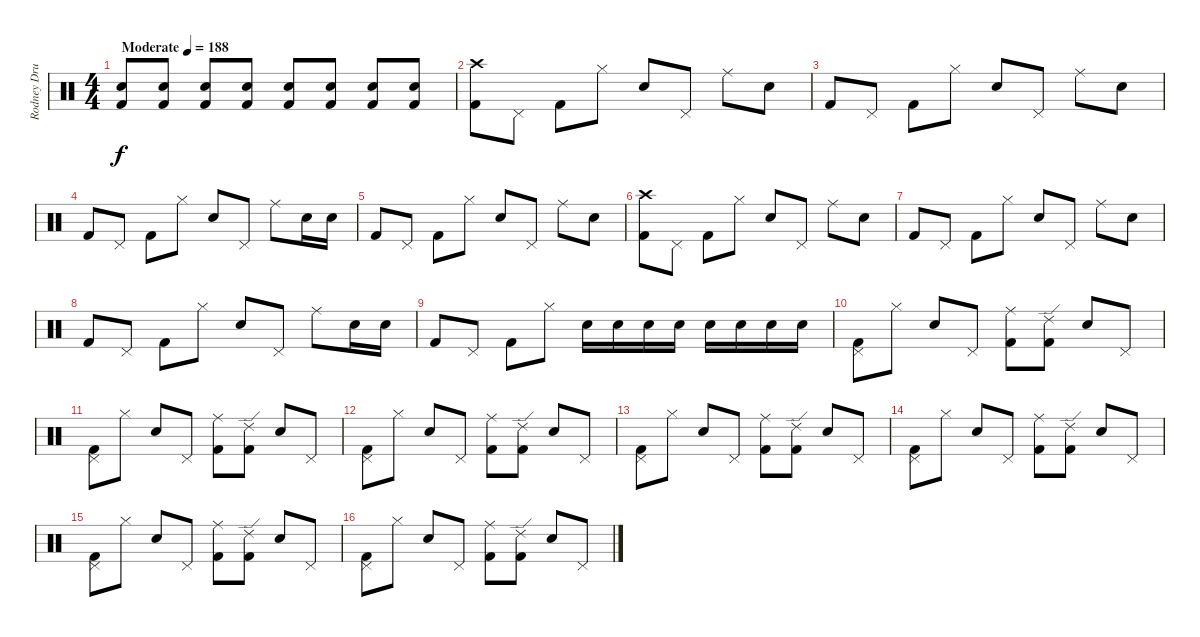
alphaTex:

\track ("Rodney Drums" "Rodney Dru") {instrument percussion}
\staff {score}
\articulation defaults
\ts (4 4)
\tempo (188 "Moderate")
\clef neutral
\ks c
("Electric Snare (hit)" "Kick (hit) 2").8{dy f} ("Electric Snare (hit)" "Kick (hit) 2").8 ("Electric Snare (hit)" "Kick (hit) 2").8 ("Electric Snare (hit)" "Kick (hit) 2").8 ("Electric Snare (hit)" "Kick (hit) 2").8 ("Electric Snare (hit)" "Kick (hit) 2").8 ("Electric Snare (hit)" "Kick (hit) 2").8 ("Electric Snare (hit)" "Kick (hit) 2").8 |
("Crash high (hit)" "Kick (hit) 2").8 "Pedal Hi-Hat (hit)".8 "Kick (hit) 2".8 "Hi-Hat (closed)".8 "Electric Snare (hit)".8 "Pedal Hi-Hat (hit)".8 "Ride (middle)".8 "Electric Snare (hit)".8 |
"Kick (hit) 2".8 "Pedal Hi-Hat (hit)".8 "Kick (hit) 2".8 "Hi-Hat (closed)".8 "Electric Snare (hit)".8 "Pedal Hi-Hat (hit)".8 "Ride (middle)".8 "Electric Snare (hit)".8 |
"Kick (hit) 2".8 "Pedal Hi-Hat (hit)".8 "Kick (hit) 2".8 "Hi-Hat (closed)".8 "Electric Snare (hit)".8 "Pedal Hi-Hat (hit)".8 "Ride (middle)".8 "Electric Snare (hit)".16 "Electric Snare (hit)".16 |
"Kick (hit) 2".8 "Pedal Hi-Hat (hit)".8 "Kick (hit) 2".8 "Hi-Hat (closed)".8 "Electric Snare (hit)".8 "Pedal Hi-Hat (hit)".8 "Ride (middle)".8 "Electric Snare (hit)".8 |
("Crash high (hit)" "Kick (hit) 2").8 "Pedal Hi-Hat (hit)".8 "Kick (hit) 2".8 "Hi-Hat (closed)".8 "Electric Snare (hit)".8 "Pedal Hi-Hat (hit)".8 "Ride (middle)".8 "Electric Snare (hit)".8 |
"Kick (hit) 2".8 "Pedal Hi-Hat (hit)".8 "Kick (hit) 2".8 "Hi-Hat (closed)".8 "Electric Snare (hit)".8 "Pedal Hi-Hat (hit)".8 "Ride (middle)".8 "Electric Snare (hit)".8 |
"Kick (hit) 2".8 "Pedal Hi-Hat (hit)".8 "Kick (hit) 2".8 "Hi-Hat (closed)".8 "Electric Snare (hit)".8 "Pedal Hi-Hat (hit)".8 "Ride (middle)".8 "Electric Snare (hit)".16 "Electric Snare (hit)".16 |
"Kick (hit) 2".8 "Pedal Hi-Hat (hit)".8 "Kick (hit) 2".8 "Hi-Hat (closed)".8 "Electric Snare (hit)".16 "Electric Snare (hit)".16 "Electric Snare (hit)".16 "Electric Snare (hit)".16 "Electric Snare (hit)".16 "Electric Snare (hit)".16 "Electric Snare (hit)".16 "Electric Snare (hit)".16 |
("Pedal Hi-Hat (hit)" "Kick (hit) 2").8 "Hi-Hat (closed)".8 "Electric Snare (hit)".8 "Pedal Hi-Hat (hit)".8 ("Ride (middle)" "Kick (hit) 2").8 ("Ride (edge) 2" "Kick (hit) 2").8 "Electric Snare (hit)".8 "Pedal Hi-Hat (hit)".8 |
("Pedal Hi-Hat (hit)" "Kick (hit) 2").8 "Hi-Hat (closed)".8 "Electric Snare (hit)".8 "Pedal Hi-Hat (hit)".8 ("Ride (middle)" "Kick (hit) 2").8 ("Ride (edge) 2" "Kick (hit) 2").8 "Electric Snare (hit)".8 "Pedal Hi-Hat (hit)".8 |
("Pedal Hi-Hat (hit)" "Kick (hit) 2").8 "Hi-Hat (closed)".8 "Electric Snare (hit)".8 "Pedal Hi-Hat (hit)".8 ("Ride (middle)" "Kick (hit) 2").8 ("Ride (edge) 2" "Kick (hit) 2").8 "Electric Snare (hit)".8 "Pedal Hi-Hat (hit)".8 |
("Pedal Hi-Hat (hit)" "Kick (hit) 2").8 "Hi-Hat (closed)".8 "Electric Snare (hit)".8 "Pedal Hi-Hat (hit)".8 ("Ride (middle)" "Kick (hit) 2").8 ("Ride (edge) 2" "Kick (hit) 2").8 "Electric Snare (hit)".8 "Pedal Hi-Hat (hit)".8 |
("Pedal Hi-Hat (hit)" "Kick (hit) 2").8 "Hi-Hat (closed)".8 "Electric Snare (hit)".8 "Pedal Hi-Hat (hit)".8 ("Ride (middle)" "Kick (hit) 2").8 ("Ride (edge) 2" "Kick (hit) 2").8 "Electric Snare (hit)".8 "Pedal Hi-Hat (hit)".8 |
("Pedal Hi-Hat (hit)" "Kick (hit) 2").8 "Hi-Hat (closed)".8 "Electric Snare (hit)".8 "Pedal Hi-Hat (hit)".8 ("Ride (middle)" "Kick (hit) 2").8 ("Ride (edge) 2" "Kick (hit) 2").8 "Electric Snare (hit)".8 "Pedal Hi-Hat (hit)".8 |
("Pedal Hi-Hat (hit)" "Kick (hit) 2").8 "Hi-Hat (closed)".8 "Electric Snare (hit)".8 "Pedal Hi-Hat (hit)".8 ("Ride (middle)" "Kick (hit) 2").8 ("Ride (edge) 2" "Kick (hit) 2").8 "Electric Snare (hit)".8 "Pedal Hi-Hat (hit)".8
